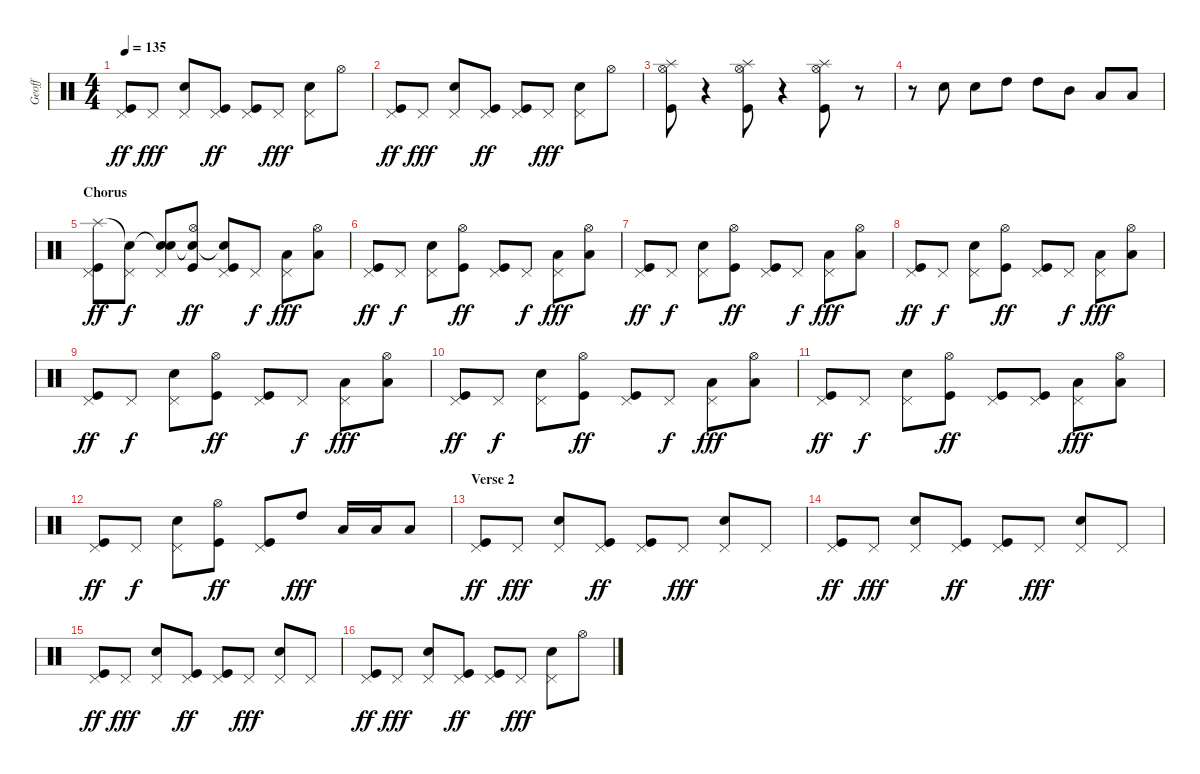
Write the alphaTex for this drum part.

\track ("Geoff" "Geoff") {instrument percussion}
\staff {score}
\articulation defaults
\ts (4 4)
\tempo 135
\clef neutral
\ks c
("Pedal Hi-Hat (hit)" "Kick (hit)").8{dy ff} "Pedal Hi-Hat (hit)".8{dy fff} ("Pedal Hi-Hat (hit)" "Electric Snare (hit)").8 ("Pedal Hi-Hat (hit)" "Kick (hit)").8{dy ff} ("Pedal Hi-Hat (hit)" "Kick (hit)").8 "Pedal Hi-Hat (hit)".8{dy fff} ("Pedal Hi-Hat (hit)" "Electric Snare (hit)").8 "Hi-Hat (open)".8 |
("Pedal Hi-Hat (hit)" "Kick (hit)").8{dy ff} "Pedal Hi-Hat (hit)".8{dy fff} ("Pedal Hi-Hat (hit)" "Electric Snare (hit)").8 ("Pedal Hi-Hat (hit)" "Kick (hit)").8{dy ff} ("Pedal Hi-Hat (hit)" "Kick (hit)").8 "Pedal Hi-Hat (hit)".8{dy fff} ("Pedal Hi-Hat (hit)" "Electric Snare (hit)").8 "Hi-Hat (open)".8 |
("Splash (hit)" "Hi-Hat (open)" "Kick (hit)").8 r.4 ("Splash (hit)" "Hi-Hat (open)" "Kick (hit)").8 r.4 ("Splash (hit)" "Hi-Hat (open)" "Kick (hit)").8 r.8 |
r.8 "Electric Snare (hit)".8 "Electric Snare (hit)".8 "High Tom (hit)".8 "High Tom (hit)".8 "Mid Tom (hit)".8 "Low Tom (hit)".8 "Low Tom (hit)".8 |
\section ("" "Chorus")
("Splash (hit)" "Pedal Hi-Hat (hit)" "Kick (hit)").8{dy ff} ("Snare (hit)"{t} "Pedal Hi-Hat (hit)").8{dy f} ("Snare (hit)"{t} "Pedal Hi-Hat (hit)" "Electric Snare (hit)").8 ("Snare (hit)"{t} "Hi-Hat (open)" "Kick (hit)").8{dy ff} ("Snare (hit)"{t} "Pedal Hi-Hat (hit)" "Kick (hit)").8 "Pedal Hi-Hat (hit)".8{dy f} ("Pedal Hi-Hat (hit)" "Low Tom (hit)").8{dy fff} ("Hi-Hat (open)" "Low Tom (hit)").8 |
("Pedal Hi-Hat (hit)" "Kick (hit)").8{dy ff} "Pedal Hi-Hat (hit)".8{dy f} ("Pedal Hi-Hat (hit)" "Electric Snare (hit)").8 ("Hi-Hat (open)" "Kick (hit)").8{dy ff} ("Pedal Hi-Hat (hit)" "Kick (hit)").8 "Pedal Hi-Hat (hit)".8{dy f} ("Pedal Hi-Hat (hit)" "Low Tom (hit)").8{dy fff} ("Hi-Hat (open)" "Low Tom (hit)").8 |
("Pedal Hi-Hat (hit)" "Kick (hit)").8{dy ff} "Pedal Hi-Hat (hit)".8{dy f} ("Pedal Hi-Hat (hit)" "Electric Snare (hit)").8 ("Hi-Hat (open)" "Kick (hit)").8{dy ff} ("Pedal Hi-Hat (hit)" "Kick (hit)").8 "Pedal Hi-Hat (hit)".8{dy f} ("Pedal Hi-Hat (hit)" "Low Tom (hit)").8{dy fff} ("Hi-Hat (open)" "Low Tom (hit)").8 |
("Pedal Hi-Hat (hit)" "Kick (hit)").8{dy ff} "Pedal Hi-Hat (hit)".8{dy f} ("Pedal Hi-Hat (hit)" "Electric Snare (hit)").8 ("Hi-Hat (open)" "Kick (hit)").8{dy ff} ("Pedal Hi-Hat (hit)" "Kick (hit)").8 "Pedal Hi-Hat (hit)".8{dy f} ("Pedal Hi-Hat (hit)" "Low Tom (hit)").8{dy fff} ("Hi-Hat (open)" "Low Tom (hit)").8 |
("Pedal Hi-Hat (hit)" "Kick (hit)").8{dy ff} "Pedal Hi-Hat (hit)".8{dy f} ("Pedal Hi-Hat (hit)" "Electric Snare (hit)").8 ("Hi-Hat (open)" "Kick (hit)").8{dy ff} ("Pedal Hi-Hat (hit)" "Kick (hit)").8 "Pedal Hi-Hat (hit)".8{dy f} ("Pedal Hi-Hat (hit)" "Low Tom (hit)").8{dy fff} ("Hi-Hat (open)" "Low Tom (hit)").8 |
("Pedal Hi-Hat (hit)" "Kick (hit)").8{dy ff} "Pedal Hi-Hat (hit)".8{dy f} ("Pedal Hi-Hat (hit)" "Electric Snare (hit)").8 ("Hi-Hat (open)" "Kick (hit)").8{dy ff} ("Pedal Hi-Hat (hit)" "Kick (hit)").8 "Pedal Hi-Hat (hit)".8{dy f} ("Pedal Hi-Hat (hit)" "Low Tom (hit)").8{dy fff} ("Hi-Hat (open)" "Low Tom (hit)").8 |
("Pedal Hi-Hat (hit)" "Kick (hit)").8{dy ff} "Pedal Hi-Hat (hit)".8{dy f} ("Pedal Hi-Hat (hit)" "Electric Snare (hit)").8 ("Hi-Hat (open)" "Kick (hit)").8{dy ff} ("Pedal Hi-Hat (hit)" "Kick (hit)").8 ("Pedal Hi-Hat (hit)" "Kick (hit)").8 ("Pedal Hi-Hat (hit)" "Low Tom (hit)").8{dy fff} ("Hi-Hat (open)" "Low Tom (hit)").8 |
("Pedal Hi-Hat (hit)" "Kick (hit)").8{dy ff} "Pedal Hi-Hat (hit)".8{dy f} ("Pedal Hi-Hat (hit)" "Electric Snare (hit)").8 ("Hi-Hat (open)" "Kick (hit)").8{dy ff} ("Pedal Hi-Hat (hit)" "Kick (hit)").8 "High Tom (hit)".8{dy fff} "Low Tom (hit)".16 "Low Tom (hit)".16 "Low Tom (hit)".8 |
\section ("" "Verse 2")
("Pedal Hi-Hat (hit)" "Kick (hit)").8{dy ff} "Pedal Hi-Hat (hit)".8{dy fff} ("Pedal Hi-Hat (hit)" "Electric Snare (hit)").8 ("Pedal Hi-Hat (hit)" "Kick (hit)").8{dy ff} ("Pedal Hi-Hat (hit)" "Kick (hit)").8 "Pedal Hi-Hat (hit)".8{dy fff} ("Pedal Hi-Hat (hit)" "Electric Snare (hit)").8 "Pedal Hi-Hat (hit)".8 |
("Pedal Hi-Hat (hit)" "Kick (hit)").8{dy ff} "Pedal Hi-Hat (hit)".8{dy fff} ("Pedal Hi-Hat (hit)" "Electric Snare (hit)").8 ("Pedal Hi-Hat (hit)" "Kick (hit)").8{dy ff} ("Pedal Hi-Hat (hit)" "Kick (hit)").8 "Pedal Hi-Hat (hit)".8{dy fff} ("Pedal Hi-Hat (hit)" "Electric Snare (hit)").8 "Pedal Hi-Hat (hit)".8 |
("Pedal Hi-Hat (hit)" "Kick (hit)").8{dy ff} "Pedal Hi-Hat (hit)".8{dy fff} ("Pedal Hi-Hat (hit)" "Electric Snare (hit)").8 ("Pedal Hi-Hat (hit)" "Kick (hit)").8{dy ff} ("Pedal Hi-Hat (hit)" "Kick (hit)").8 "Pedal Hi-Hat (hit)".8{dy fff} ("Pedal Hi-Hat (hit)" "Electric Snare (hit)").8 "Pedal Hi-Hat (hit)".8 |
("Pedal Hi-Hat (hit)" "Kick (hit)").8{dy ff} "Pedal Hi-Hat (hit)".8{dy fff} ("Pedal Hi-Hat (hit)" "Electric Snare (hit)").8 ("Pedal Hi-Hat (hit)" "Kick (hit)").8{dy ff} ("Pedal Hi-Hat (hit)" "Kick (hit)").8 "Pedal Hi-Hat (hit)".8{dy fff} ("Pedal Hi-Hat (hit)" "Electric Snare (hit)").8 "Hi-Hat (open)".8
